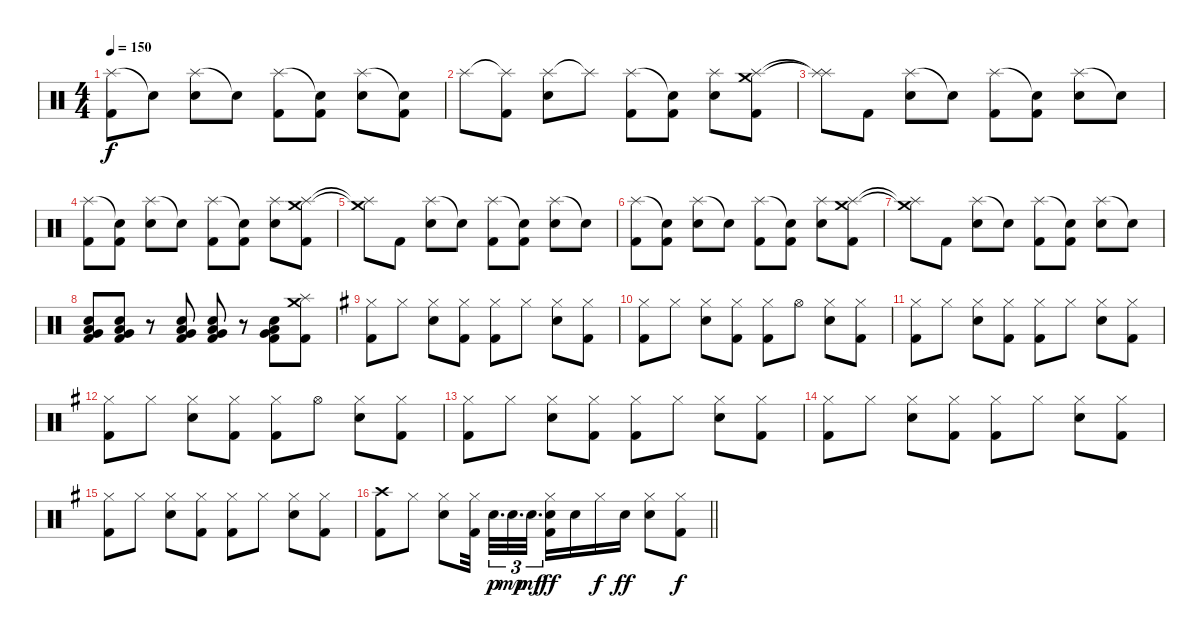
\track (" " " ") {instrument percussion}
\staff {score}
\articulation defaults
\ts (4 4)
\tempo 150
\clef neutral
\ks c
("Splash (hit)" "Kick (hit) 2").8{dy f} "Snare (hit)"{t}.8 ("Splash (hit)" "Electric Snare (hit)").8 "Snare (hit)"{t}.8 ("Splash (hit)" "Kick (hit) 2").8 ("Snare (hit)"{t} "Kick (hit) 2").8 ("Splash (hit)" "Electric Snare (hit)").8 ("Snare (hit)"{t} "Kick (hit) 2").8 |
"Splash (hit)".8 ("Splash (hit)"{t} "Kick (hit) 2").8 ("Splash (hit)" "Electric Snare (hit)").8 "Splash (hit)"{t}.8 ("Splash (hit)" "Kick (hit) 2").8 ("Snare (hit)"{t} "Kick (hit) 2").8 ("Splash (hit)" "Electric Snare (hit)").8 ("Crash medium (hit)" "Splash (hit)" "Kick (hit) 2").8 |
("Splash (hit)"{t} "Splash (hit)"{t}).8 "Kick (hit) 2".8 ("Splash (hit)" "Electric Snare (hit)").8 "Snare (hit)"{t}.8 ("Splash (hit)" "Kick (hit) 2").8 ("Snare (hit)"{t} "Kick (hit) 2").8 ("Splash (hit)" "Electric Snare (hit)").8 "Snare (hit)"{t}.8 |
("Splash (hit)" "Kick (hit) 2").8 ("Snare (hit)"{t} "Kick (hit) 2").8 ("Splash (hit)" "Electric Snare (hit)").8 "Snare (hit)"{t}.8 ("Splash (hit)" "Kick (hit) 2").8 ("Snare (hit)"{t} "Kick (hit) 2").8 ("Splash (hit)" "Electric Snare (hit)").8 ("Crash medium (hit)" "Splash (hit)" "Kick (hit) 2").8 |
("Crash medium (hit)"{t} "Splash (hit)"{t}).8 "Kick (hit) 2".8 ("Splash (hit)" "Electric Snare (hit)").8 "Snare (hit)"{t}.8 ("Splash (hit)" "Kick (hit) 2").8 ("Snare (hit)"{t} "Kick (hit) 2").8 ("Splash (hit)" "Electric Snare (hit)").8 "Snare (hit)"{t}.8 |
("Splash (hit)" "Kick (hit) 2").8 ("Snare (hit)"{t} "Kick (hit) 2").8 ("Splash (hit)" "Electric Snare (hit)").8 "Snare (hit)"{t}.8 ("Splash (hit)" "Kick (hit) 2").8 ("Snare (hit)"{t} "Kick (hit) 2").8 ("Splash (hit)" "Electric Snare (hit)").8 ("Crash medium (hit)" "Splash (hit)" "Kick (hit) 2").8 |
("Crash medium (hit)"{t} "Splash (hit)"{t}).8 "Kick (hit) 2".8 ("Splash (hit)" "Electric Snare (hit)").8 "Snare (hit)"{t}.8 ("Splash (hit)" "Kick (hit) 2").8 ("Snare (hit)"{t} "Kick (hit) 2").8 ("Splash (hit)" "Electric Snare (hit)").8 "Snare (hit)"{t}.8 |
("Electric Snare (hit)" "Low Floor Tom (hit)" "Very Low Tom (hit)" "Kick (hit) 2").8 ("Electric Snare (hit)" "Low Floor Tom (hit)" "Very Low Tom (hit)" "Kick (hit) 2").8 r.8 ("Electric Snare (hit)" "Low Floor Tom (hit)" "Very Low Tom (hit)" "Kick (hit) 2").8 ("Electric Snare (hit)" "Low Floor Tom (hit)" "Very Low Tom (hit)" "Kick (hit) 2").8 r.8 ("Electric Snare (hit)" "Low Floor Tom (hit)" "Very Low Tom (hit)" "Kick (hit) 2").8 ("Splash (hit)" "Crash medium (hit)" "Kick (hit) 2").8 |
\ks g
("Hi-Hat (closed)" "Kick (hit) 2").8 "Hi-Hat (closed)".8 ("Hi-Hat (closed)" "Electric Snare (hit)").8 ("Hi-Hat (closed)" "Kick (hit) 2").8 ("Hi-Hat (closed)" "Kick (hit) 2").8 "Hi-Hat (closed)".8 ("Hi-Hat (closed)" "Electric Snare (hit)").8 ("Hi-Hat (closed)" "Kick (hit) 2").8 |
("Hi-Hat (closed)" "Kick (hit) 2").8 "Hi-Hat (closed)".8 ("Hi-Hat (closed)" "Electric Snare (hit)").8 ("Hi-Hat (closed)" "Kick (hit) 2").8 ("Hi-Hat (closed)" "Kick (hit) 2").8 "Hi-Hat (open)".8 ("Hi-Hat (closed)" "Electric Snare (hit)").8 ("Hi-Hat (closed)" "Kick (hit) 2").8 |
("Hi-Hat (closed)" "Kick (hit) 2").8 "Hi-Hat (closed)".8 ("Hi-Hat (closed)" "Electric Snare (hit)").8 ("Hi-Hat (closed)" "Kick (hit) 2").8 ("Hi-Hat (closed)" "Kick (hit) 2").8 "Hi-Hat (closed)".8 ("Hi-Hat (closed)" "Electric Snare (hit)").8 ("Hi-Hat (closed)" "Kick (hit) 2").8 |
("Hi-Hat (closed)" "Kick (hit) 2").8 "Hi-Hat (closed)".8 ("Hi-Hat (closed)" "Electric Snare (hit)").8 ("Hi-Hat (closed)" "Kick (hit) 2").8 ("Hi-Hat (closed)" "Kick (hit) 2").8 "Hi-Hat (open)".8 ("Hi-Hat (closed)" "Electric Snare (hit)").8 ("Hi-Hat (closed)" "Kick (hit) 2").8 |
("Hi-Hat (closed)" "Kick (hit) 2").8 "Hi-Hat (closed)".8 ("Hi-Hat (closed)" "Electric Snare (hit)").8 ("Hi-Hat (closed)" "Kick (hit) 2").8 ("Hi-Hat (closed)" "Kick (hit) 2").8 "Hi-Hat (closed)".8 ("Hi-Hat (closed)" "Electric Snare (hit)").8 ("Hi-Hat (closed)" "Kick (hit) 2").8 |
("Hi-Hat (closed)" "Kick (hit) 2").8 "Hi-Hat (closed)".8 ("Hi-Hat (closed)" "Electric Snare (hit)").8 ("Hi-Hat (closed)" "Kick (hit) 2").8 ("Hi-Hat (closed)" "Kick (hit) 2").8 "Hi-Hat (closed)".8 ("Hi-Hat (closed)" "Electric Snare (hit)").8 ("Hi-Hat (closed)" "Kick (hit) 2").8 |
("Hi-Hat (closed)" "Kick (hit) 2").8 "Hi-Hat (closed)".8 ("Hi-Hat (closed)" "Electric Snare (hit)").8 ("Hi-Hat (closed)" "Kick (hit) 2").8 ("Hi-Hat (closed)" "Kick (hit) 2").8 "Hi-Hat (closed)".8 ("Hi-Hat (closed)" "Electric Snare (hit)").8 ("Hi-Hat (closed)" "Kick (hit) 2").8 |
\barLineRight lightlight
("Crash high (hit)" "Kick (hit) 2").8 "Hi-Hat (closed)".8 ("Hi-Hat (closed)" "Electric Snare (hit)").8 ("Hi-Hat (closed)" "Kick (hit) 2").32{beam splitsecondary} "Electric Snare (hit)".32{d tu (3 2) dy p} "Electric Snare (hit)".32{d tu (3 2) dy mp} "Electric Snare (hit)".32{d tu (3 2) dy mf} ("Hi-Hat (closed)" "Electric Snare (hit)" "Kick (hit) 2").16{dy ff} "Electric Snare (hit)".16 "Hi-Hat (closed)".16{dy f} "Electric Snare (hit)".16{dy ff} ("Hi-Hat (closed)" "Electric Snare (hit)").8 ("Hi-Hat (closed)" "Kick (hit) 2").8{dy f}
